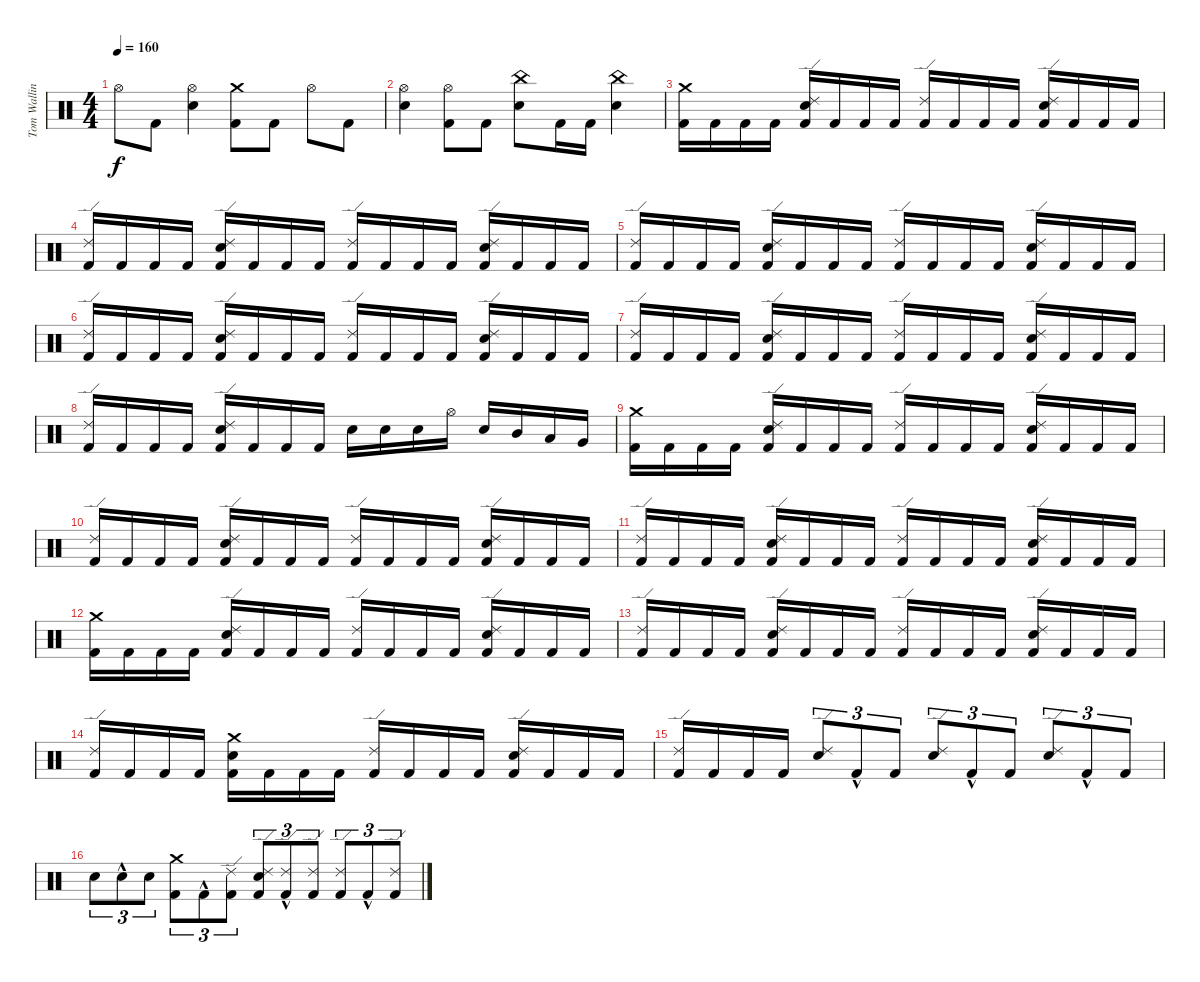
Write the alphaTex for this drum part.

\track ("Tom Walling (Drums)" "Tom Wallin") {instrument percussion}
\staff {score}
\articulation defaults
\ts (4 4)
\tempo 160
\clef neutral
\ks c "Hi-Hat (open)".8{dy f} "Kick (hit) 2".8
("Hi-Hat (open)" "Electric Snare (hit)").4 ("Crash medium (hit)" "Kick (hit) 2").8 "Kick (hit) 2".8 "Hi-Hat (open)".8 "Kick (hit) 2".8 |
("Hi-Hat (open)" "Electric Snare (hit)").4 ("Hi-Hat (open)" "Kick (hit) 2").8 "Kick (hit) 2".8 ("China (hit)" "Electric Snare (hit)").8 "Kick (hit) 2".16 "Kick (hit) 2".16 ("China (hit)" "Electric Snare (hit)").4 |
("Kick (hit) 2" "Crash medium (hit)").16 "Kick (hit) 2".16 "Kick (hit) 2".16 "Kick (hit) 2".16 ("Electric Snare (hit)" "Kick (hit) 2" "Ride (edge) 2").16 "Kick (hit) 2".16 "Kick (hit) 2".16 "Kick (hit) 2".16 ("Kick (hit) 2" "Ride (edge) 2").16 "Kick (hit) 2".16 "Kick (hit) 2".16 "Kick (hit) 2".16 ("Electric Snare (hit)" "Kick (hit) 2" "Ride (edge) 2").16 "Kick (hit) 2".16 "Kick (hit) 2".16 "Kick (hit) 2".16 |
("Kick (hit) 2" "Ride (edge) 2").16 "Kick (hit) 2".16 "Kick (hit) 2".16 "Kick (hit) 2".16 ("Electric Snare (hit)" "Kick (hit) 2" "Ride (edge) 2").16 "Kick (hit) 2".16 "Kick (hit) 2".16 "Kick (hit) 2".16 ("Ride (edge) 2" "Kick (hit) 2").16 "Kick (hit) 2".16 "Kick (hit) 2".16 "Kick (hit) 2".16 ("Electric Snare (hit)" "Kick (hit) 2" "Ride (edge) 2").16 "Kick (hit) 2".16 "Kick (hit) 2".16 "Kick (hit) 2".16 |
("Kick (hit) 2" "Ride (edge) 2").16 "Kick (hit) 2".16 "Kick (hit) 2".16 "Kick (hit) 2".16 ("Electric Snare (hit)" "Kick (hit) 2" "Ride (edge) 2").16 "Kick (hit) 2".16 "Kick (hit) 2".16 "Kick (hit) 2".16 ("Kick (hit) 2" "Ride (edge) 2").16 "Kick (hit) 2".16 "Kick (hit) 2".16 "Kick (hit) 2".16 ("Electric Snare (hit)" "Kick (hit) 2" "Ride (edge) 2").16 "Kick (hit) 2".16 "Kick (hit) 2".16 "Kick (hit) 2".16 |
("Ride (edge) 2" "Kick (hit) 2").16 "Kick (hit) 2".16 "Kick (hit) 2".16 "Kick (hit) 2".16 ("Electric Snare (hit)" "Kick (hit) 2" "Ride (edge) 2").16 "Kick (hit) 2".16 "Kick (hit) 2".16 "Kick (hit) 2".16 ("Kick (hit) 2" "Ride (edge) 2").16 "Kick (hit) 2".16 "Kick (hit) 2".16 "Kick (hit) 2".16 ("Electric Snare (hit)" "Kick (hit) 2" "Ride (edge) 2").16 "Kick (hit) 2".16 "Kick (hit) 2".16 "Kick (hit) 2".16 |
("Kick (hit) 2" "Ride (edge) 2").16 "Kick (hit) 2".16 "Kick (hit) 2".16 "Kick (hit) 2".16 ("Electric Snare (hit)" "Kick (hit) 2" "Ride (edge) 2").16 "Kick (hit) 2".16 "Kick (hit) 2".16 "Kick (hit) 2".16 ("Ride (edge) 2" "Kick (hit) 2").16 "Kick (hit) 2".16 "Kick (hit) 2".16 "Kick (hit) 2".16 ("Electric Snare (hit)" "Kick (hit) 2" "Ride (edge) 2").16 "Kick (hit) 2".16 "Kick (hit) 2".16 "Kick (hit) 2".16 |
("Kick (hit) 2" "Ride (edge) 2").16 "Kick (hit) 2".16 "Kick (hit) 2".16 "Kick (hit) 2".16 ("Electric Snare (hit)" "Kick (hit) 2" "Ride (edge) 2").16 "Kick (hit) 2".16 "Kick (hit) 2".16 "Kick (hit) 2".16 "Electric Snare (hit)".16 "Electric Snare (hit)".16 "Electric Snare (hit)".16 "Hi-Hat (open)".16 "Electric Snare (hit)".16 "Mid Tom (hit)".16 "Low Tom (hit)".16 "Very Low Tom (hit)".16 |
("Kick (hit) 2" "Crash medium (hit)").16 "Kick (hit) 2".16 "Kick (hit) 2".16 "Kick (hit) 2".16 ("Electric Snare (hit)" "Kick (hit) 2" "Ride (edge) 2").16 "Kick (hit) 2".16 "Kick (hit) 2".16 "Kick (hit) 2".16 ("Kick (hit) 2" "Ride (edge) 2").16 "Kick (hit) 2".16 "Kick (hit) 2".16 "Kick (hit) 2".16 ("Electric Snare (hit)" "Kick (hit) 2" "Ride (edge) 2").16 "Kick (hit) 2".16 "Kick (hit) 2".16 "Kick (hit) 2".16 |
("Kick (hit) 2" "Ride (edge) 2").16 "Kick (hit) 2".16 "Kick (hit) 2".16 "Kick (hit) 2".16 ("Electric Snare (hit)" "Kick (hit) 2" "Ride (edge) 2").16 "Kick (hit) 2".16 "Kick (hit) 2".16 "Kick (hit) 2".16 ("Ride (edge) 2" "Kick (hit) 2").16 "Kick (hit) 2".16 "Kick (hit) 2".16 "Kick (hit) 2".16 ("Electric Snare (hit)" "Kick (hit) 2" "Ride (edge) 2").16 "Kick (hit) 2".16 "Kick (hit) 2".16 "Kick (hit) 2".16 |
("Kick (hit) 2" "Ride (edge) 2").16 "Kick (hit) 2".16 "Kick (hit) 2".16 "Kick (hit) 2".16 ("Electric Snare (hit)" "Kick (hit) 2" "Ride (edge) 2").16 "Kick (hit) 2".16 "Kick (hit) 2".16 "Kick (hit) 2".16 ("Kick (hit) 2" "Ride (edge) 2").16 "Kick (hit) 2".16 "Kick (hit) 2".16 "Kick (hit) 2".16 ("Electric Snare (hit)" "Kick (hit) 2" "Ride (edge) 2").16 "Kick (hit) 2".16 "Kick (hit) 2".16 "Kick (hit) 2".16 |
("Kick (hit) 2" "Crash medium (hit)").16 "Kick (hit) 2".16 "Kick (hit) 2".16 "Kick (hit) 2".16 ("Electric Snare (hit)" "Kick (hit) 2" "Ride (edge) 2").16 "Kick (hit) 2".16 "Kick (hit) 2".16 "Kick (hit) 2".16 ("Kick (hit) 2" "Ride (edge) 2").16 "Kick (hit) 2".16 "Kick (hit) 2".16 "Kick (hit) 2".16 ("Electric Snare (hit)" "Kick (hit) 2" "Ride (edge) 2").16 "Kick (hit) 2".16 "Kick (hit) 2".16 "Kick (hit) 2".16 |
("Kick (hit) 2" "Ride (edge) 2").16 "Kick (hit) 2".16 "Kick (hit) 2".16 "Kick (hit) 2".16 ("Electric Snare (hit)" "Kick (hit) 2" "Ride (edge) 2").16 "Kick (hit) 2".16 "Kick (hit) 2".16 "Kick (hit) 2".16 ("Ride (edge) 2" "Kick (hit) 2").16 "Kick (hit) 2".16 "Kick (hit) 2".16 "Kick (hit) 2".16 ("Electric Snare (hit)" "Kick (hit) 2" "Ride (edge) 2").16 "Kick (hit) 2".16 "Kick (hit) 2".16 "Kick (hit) 2".16 |
("Kick (hit) 2" "Ride (edge) 2").16 "Kick (hit) 2".16 "Kick (hit) 2".16 "Kick (hit) 2".16 ("Crash medium (hit)" "Electric Snare (hit)" "Kick (hit) 2").16 "Kick (hit) 2".16 "Kick (hit) 2".16 "Kick (hit) 2".16 ("Kick (hit) 2" "Ride (edge) 2").16 "Kick (hit) 2".16 "Kick (hit) 2".16 "Kick (hit) 2".16 ("Electric Snare (hit)" "Kick (hit) 2" "Ride (edge) 2").16 "Kick (hit) 2".16 "Kick (hit) 2".16 "Kick (hit) 2".16 |
("Ride (edge) 2" "Kick (hit) 2").16 "Kick (hit) 2".16 "Kick (hit) 2".16 "Kick (hit) 2".16 ("Ride (edge) 2" "Electric Snare (hit)").8{tu (3 2)} "Kick (hit) 2"{hac}.8{tu (3 2)} "Kick (hit) 2".8{tu (3 2)} ("Ride (edge) 2" "Electric Snare (hit)").8{tu (3 2)} "Kick (hit) 2"{hac}.8{tu (3 2)} "Kick (hit) 2".8{tu (3 2)} ("Ride (edge) 2" "Electric Snare (hit)").8{tu (3 2)} "Kick (hit) 2"{hac}.8{tu (3 2)} "Kick (hit) 2".8{tu (3 2)} |
"Electric Snare (hit)".8{tu (3 2)} "Electric Snare (hit)"{hac}.8{tu (3 2)} "Electric Snare (hit)".8{tu (3 2)} ("Crash medium (hit)" "Kick (hit) 2").8{tu (3 2)} "Kick (hit) 2"{hac}.8{tu (3 2)} ("Ride (edge) 2" "Kick (hit) 2").8{tu (3 2)} ("Ride (edge) 2" "Electric Snare (hit)" "Kick (hit) 2").8{tu (3 2)} ("Ride (edge) 2"{hac} "Kick (hit) 2"{hac}).8{tu (3 2)} ("Ride (edge) 2" "Kick (hit) 2").8{tu (3 2)} ("Ride (edge) 2" "Kick (hit) 2").8{tu (3 2)} "Kick (hit) 2"{hac}.8{tu (3 2)} ("Ride (edge) 2" "Kick (hit) 2").8{tu (3 2)}
